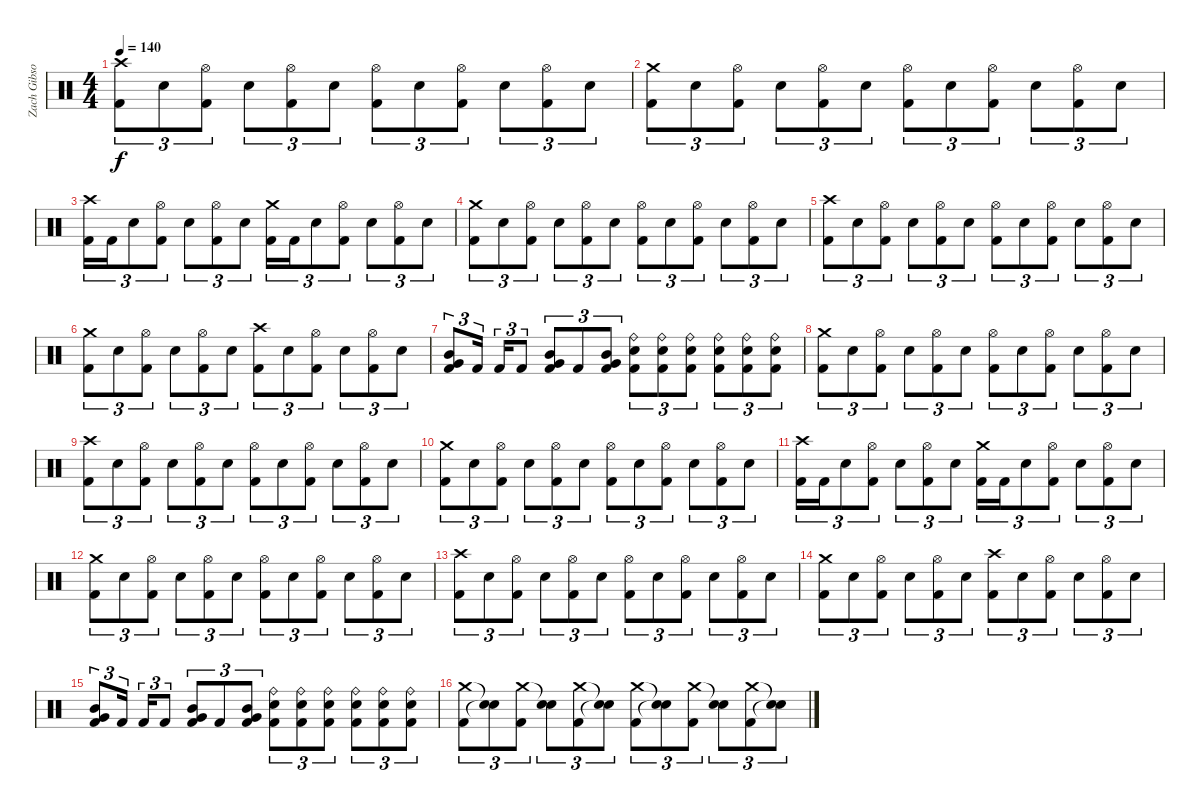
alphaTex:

\track ("Zach Gibson" "Zach Gibso") {instrument percussion}
\staff {score}
\articulation defaults
\ts (4 4)
\tempo 140
\clef neutral
\ks c
("Crash high (hit)" "Kick (hit) 2").8{tu (3 2) dy f} "Snare (hit) 2".8{tu (3 2)} ("Hi-Hat (open)" "Kick (hit) 2").8{tu (3 2)} "Snare (hit) 2".8{tu (3 2)} ("Hi-Hat (open)" "Kick (hit) 2").8{tu (3 2)} "Snare (hit) 2".8{tu (3 2)} ("Hi-Hat (open)" "Kick (hit) 2").8{tu (3 2)} "Snare (hit) 2".8{tu (3 2)} ("Hi-Hat (open)" "Kick (hit) 2").8{tu (3 2)} "Snare (hit) 2".8{tu (3 2)} ("Hi-Hat (open)" "Kick (hit) 2").8{tu (3 2)} "Snare (hit) 2".8{tu (3 2)} |
("Crash medium (hit)" "Kick (hit) 2").8{tu (3 2)} "Snare (hit) 2".8{tu (3 2)} ("Hi-Hat (open)" "Kick (hit) 2").8{tu (3 2)} "Snare (hit) 2".8{tu (3 2)} ("Hi-Hat (open)" "Kick (hit) 2").8{tu (3 2)} "Snare (hit) 2".8{tu (3 2)} ("Hi-Hat (open)" "Kick (hit) 2").8{tu (3 2)} "Snare (hit) 2".8{tu (3 2)} ("Hi-Hat (open)" "Kick (hit) 2").8{tu (3 2)} "Snare (hit) 2".8{tu (3 2)} ("Hi-Hat (open)" "Kick (hit) 2").8{tu (3 2)} "Snare (hit) 2".8{tu (3 2)} |
("Crash high (hit)" "Kick (hit) 2").16{tu (3 2)} "Kick (hit) 2".16{tu (3 2)} "Snare (hit) 2".8{tu (3 2)} ("Hi-Hat (open)" "Kick (hit) 2").8{tu (3 2)} "Snare (hit) 2".8{tu (3 2)} ("Hi-Hat (open)" "Kick (hit) 2").8{tu (3 2)} "Snare (hit) 2".8{tu (3 2)} ("Crash medium (hit)" "Kick (hit) 2").16{tu (3 2)} "Kick (hit) 2".16{tu (3 2)} "Snare (hit) 2".8{tu (3 2)} ("Hi-Hat (open)" "Kick (hit) 2").8{tu (3 2)} "Snare (hit) 2".8{tu (3 2)} ("Hi-Hat (open)" "Kick (hit) 2").8{tu (3 2)} "Snare (hit) 2".8{tu (3 2)} |
("Crash medium (hit)" "Kick (hit) 2").8{tu (3 2)} "Snare (hit) 2".8{tu (3 2)} ("Hi-Hat (open)" "Kick (hit) 2").8{tu (3 2)} "Snare (hit) 2".8{tu (3 2)} ("Hi-Hat (open)" "Kick (hit) 2").8{tu (3 2)} "Snare (hit) 2".8{tu (3 2)} ("Hi-Hat (open)" "Kick (hit) 2").8{tu (3 2)} "Snare (hit) 2".8{tu (3 2)} ("Hi-Hat (open)" "Kick (hit) 2").8{tu (3 2)} "Snare (hit) 2".8{tu (3 2)} ("Hi-Hat (open)" "Kick (hit) 2").8{tu (3 2)} "Snare (hit) 2".8{tu (3 2)} |
("Crash high (hit)" "Kick (hit) 2").8{tu (3 2)} "Snare (hit) 2".8{tu (3 2)} ("Hi-Hat (open)" "Kick (hit) 2").8{tu (3 2)} "Snare (hit) 2".8{tu (3 2)} ("Hi-Hat (open)" "Kick (hit) 2").8{tu (3 2)} "Snare (hit) 2".8{tu (3 2)} ("Hi-Hat (open)" "Kick (hit) 2").8{tu (3 2)} "Snare (hit) 2".8{tu (3 2)} ("Hi-Hat (open)" "Kick (hit) 2").8{tu (3 2)} "Snare (hit) 2".8{tu (3 2)} ("Hi-Hat (open)" "Kick (hit) 2").8{tu (3 2)} "Snare (hit) 2".8{tu (3 2)} |
("Crash medium (hit)" "Kick (hit) 2").8{tu (3 2)} "Snare (hit) 2".8{tu (3 2)} ("Hi-Hat (open)" "Kick (hit) 2").8{tu (3 2)} "Snare (hit) 2".8{tu (3 2)} ("Hi-Hat (open)" "Kick (hit) 2").8{tu (3 2)} "Snare (hit) 2".8{tu (3 2)} ("Crash high (hit)" "Kick (hit) 2").8{tu (3 2)} "Snare (hit) 2".8{tu (3 2)} ("Hi-Hat (open)" "Kick (hit) 2").8{tu (3 2)} "Snare (hit) 2".8{tu (3 2)} ("Hi-Hat (open)" "Kick (hit) 2").8{tu (3 2)} "Snare (hit) 2".8{tu (3 2)} |
("Mid Tom (hit)" "Very Low Tom (hit)" "Kick (hit) 2").8{tu (3 2)} "Kick (hit) 2".16{tu (3 2) beam splitsecondary} "Kick (hit) 2".16{tu (3 2)} "Kick (hit) 2".8{tu (3 2)} ("Very Low Tom (hit)" "Mid Tom (hit)" "Kick (hit) 2").8{tu (3 2)} "Kick (hit) 2".8{tu (3 2)} ("Very Low Tom (hit)" "Mid Tom (hit)" "Kick (hit) 2").8{tu (3 2)} ("Ride (bell)" "Snare (hit) 2" "Kick (hit) 2").8{tu (3 2)} ("Ride (bell)" "Snare (hit) 2" "Kick (hit) 2").8{tu (3 2)} ("Ride (bell)" "Snare (hit) 2" "Kick (hit) 2").8{tu (3 2)} ("Ride (bell)" "Snare (hit) 2" "Kick (hit) 2").8{tu (3 2)} ("Ride (bell)" "Snare (hit) 2" "Kick (hit) 2").8{tu (3 2)} ("Ride (bell)" "Snare (hit) 2" "Kick (hit) 2").8{tu (3 2)} |
("Crash medium (hit)" "Kick (hit) 2").8{tu (3 2)} "Snare (hit) 2".8{tu (3 2)} ("Hi-Hat (open)" "Kick (hit) 2").8{tu (3 2)} "Snare (hit) 2".8{tu (3 2)} ("Hi-Hat (open)" "Kick (hit) 2").8{tu (3 2)} "Snare (hit) 2".8{tu (3 2)} ("Hi-Hat (open)" "Kick (hit) 2").8{tu (3 2)} "Snare (hit) 2".8{tu (3 2)} ("Hi-Hat (open)" "Kick (hit) 2").8{tu (3 2)} "Snare (hit) 2".8{tu (3 2)} ("Hi-Hat (open)" "Kick (hit) 2").8{tu (3 2)} "Snare (hit) 2".8{tu (3 2)} |
("Crash high (hit)" "Kick (hit) 2").8{tu (3 2)} "Snare (hit) 2".8{tu (3 2)} ("Hi-Hat (open)" "Kick (hit) 2").8{tu (3 2)} "Snare (hit) 2".8{tu (3 2)} ("Hi-Hat (open)" "Kick (hit) 2").8{tu (3 2)} "Snare (hit) 2".8{tu (3 2)} ("Hi-Hat (open)" "Kick (hit) 2").8{tu (3 2)} "Snare (hit) 2".8{tu (3 2)} ("Hi-Hat (open)" "Kick (hit) 2").8{tu (3 2)} "Snare (hit) 2".8{tu (3 2)} ("Hi-Hat (open)" "Kick (hit) 2").8{tu (3 2)} "Snare (hit) 2".8{tu (3 2)} |
("Crash medium (hit)" "Kick (hit) 2").8{tu (3 2)} "Snare (hit) 2".8{tu (3 2)} ("Hi-Hat (open)" "Kick (hit) 2").8{tu (3 2)} "Snare (hit) 2".8{tu (3 2)} ("Hi-Hat (open)" "Kick (hit) 2").8{tu (3 2)} "Snare (hit) 2".8{tu (3 2)} ("Hi-Hat (open)" "Kick (hit) 2").8{tu (3 2)} "Snare (hit) 2".8{tu (3 2)} ("Hi-Hat (open)" "Kick (hit) 2").8{tu (3 2)} "Snare (hit) 2".8{tu (3 2)} ("Hi-Hat (open)" "Kick (hit) 2").8{tu (3 2)} "Snare (hit) 2".8{tu (3 2)} |
("Crash high (hit)" "Kick (hit) 2").16{tu (3 2)} "Kick (hit) 2".16{tu (3 2)} "Snare (hit) 2".8{tu (3 2)} ("Hi-Hat (open)" "Kick (hit) 2").8{tu (3 2)} "Snare (hit) 2".8{tu (3 2)} ("Hi-Hat (open)" "Kick (hit) 2").8{tu (3 2)} "Snare (hit) 2".8{tu (3 2)} ("Crash medium (hit)" "Kick (hit) 2").16{tu (3 2)} "Kick (hit) 2".16{tu (3 2)} "Snare (hit) 2".8{tu (3 2)} ("Hi-Hat (open)" "Kick (hit) 2").8{tu (3 2)} "Snare (hit) 2".8{tu (3 2)} ("Hi-Hat (open)" "Kick (hit) 2").8{tu (3 2)} "Snare (hit) 2".8{tu (3 2)} |
("Crash medium (hit)" "Kick (hit) 2").8{tu (3 2)} "Snare (hit) 2".8{tu (3 2)} ("Hi-Hat (open)" "Kick (hit) 2").8{tu (3 2)} "Snare (hit) 2".8{tu (3 2)} ("Hi-Hat (open)" "Kick (hit) 2").8{tu (3 2)} "Snare (hit) 2".8{tu (3 2)} ("Hi-Hat (open)" "Kick (hit) 2").8{tu (3 2)} "Snare (hit) 2".8{tu (3 2)} ("Hi-Hat (open)" "Kick (hit) 2").8{tu (3 2)} "Snare (hit) 2".8{tu (3 2)} ("Hi-Hat (open)" "Kick (hit) 2").8{tu (3 2)} "Snare (hit) 2".8{tu (3 2)} |
("Crash high (hit)" "Kick (hit) 2").8{tu (3 2)} "Snare (hit) 2".8{tu (3 2)} ("Hi-Hat (open)" "Kick (hit) 2").8{tu (3 2)} "Snare (hit) 2".8{tu (3 2)} ("Hi-Hat (open)" "Kick (hit) 2").8{tu (3 2)} "Snare (hit) 2".8{tu (3 2)} ("Hi-Hat (open)" "Kick (hit) 2").8{tu (3 2)} "Snare (hit) 2".8{tu (3 2)} ("Hi-Hat (open)" "Kick (hit) 2").8{tu (3 2)} "Snare (hit) 2".8{tu (3 2)} ("Hi-Hat (open)" "Kick (hit) 2").8{tu (3 2)} "Snare (hit) 2".8{tu (3 2)} |
("Crash medium (hit)" "Kick (hit) 2").8{tu (3 2)} "Snare (hit) 2".8{tu (3 2)} ("Hi-Hat (open)" "Kick (hit) 2").8{tu (3 2)} "Snare (hit) 2".8{tu (3 2)} ("Hi-Hat (open)" "Kick (hit) 2").8{tu (3 2)} "Snare (hit) 2".8{tu (3 2)} ("Crash high (hit)" "Kick (hit) 2").8{tu (3 2)} "Snare (hit) 2".8{tu (3 2)} ("Hi-Hat (open)" "Kick (hit) 2").8{tu (3 2)} "Snare (hit) 2".8{tu (3 2)} ("Hi-Hat (open)" "Kick (hit) 2").8{tu (3 2)} "Snare (hit) 2".8{tu (3 2)} |
("Mid Tom (hit)" "Very Low Tom (hit)" "Kick (hit) 2").8{tu (3 2)} "Kick (hit) 2".16{tu (3 2) beam splitsecondary} "Kick (hit) 2".16{tu (3 2)} "Kick (hit) 2".8{tu (3 2)} ("Very Low Tom (hit)" "Mid Tom (hit)" "Kick (hit) 2").8{tu (3 2)} "Kick (hit) 2".8{tu (3 2)} ("Very Low Tom (hit)" "Mid Tom (hit)" "Kick (hit) 2").8{tu (3 2)} ("Ride (bell)" "Snare (hit) 2" "Kick (hit) 2").8{tu (3 2)} ("Ride (bell)" "Snare (hit) 2" "Kick (hit) 2").8{tu (3 2)} ("Ride (bell)" "Snare (hit) 2" "Kick (hit) 2").8{tu (3 2)} ("Ride (bell)" "Snare (hit) 2" "Kick (hit) 2").8{tu (3 2)} ("Ride (bell)" "Snare (hit) 2" "Kick (hit) 2").8{tu (3 2)} ("Ride (bell)" "Snare (hit) 2" "Kick (hit) 2").8{tu (3 2)} |
("Crash medium (hit)" "Kick (hit) 2").8{tu (3 2)} ("Snare (hit)"{t} "Snare (hit)"{t}).8{tu (3 2)} ("Crash medium (hit)" "Kick (hit) 2").8{tu (3 2)} ("Snare (hit)"{t} "Snare (hit) 2").8{tu (3 2)} ("Crash medium (hit)" "Kick (hit) 2").8{tu (3 2)} ("Snare (hit)"{t} "Snare (hit)"{t}).8{tu (3 2)} ("Crash medium (hit)" "Kick (hit) 2").8{tu (3 2)} ("Snare (hit)"{t} "Snare (hit)"{t}).8{tu (3 2)} ("Crash medium (hit)" "Kick (hit) 2").8{tu (3 2)} ("Snare (hit)"{t} "Snare (hit) 2").8{tu (3 2)} ("Crash medium (hit)" "Kick (hit) 2").8{tu (3 2)} ("Snare (hit)"{t} "Snare (hit)"{t}).8{tu (3 2)}
